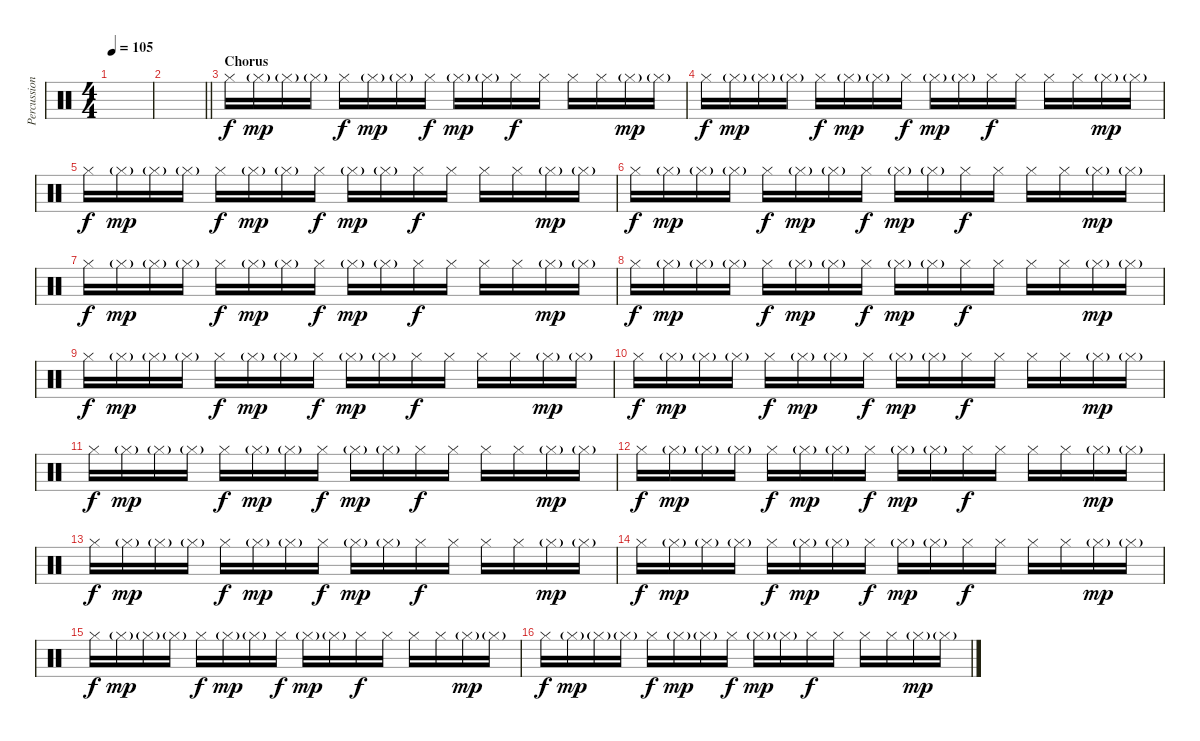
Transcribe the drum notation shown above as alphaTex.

\track ("Percussions and Arrangements" "Percussion") {instrument percussion}
\staff {score}
\articulation defaults
\ts (4 4)
\tempo 105
\clef neutral
\ks c
|
\barLineRight lightlight
|
\section ("" "Chorus")
"Hi-Hat (closed)".16{dy f} "Hi-Hat (closed)"{g}.16{dy mp} "Hi-Hat (closed)"{g}.16 "Hi-Hat (closed)"{g}.16 "Hi-Hat (closed)".16{dy f} "Hi-Hat (closed)"{g}.16{dy mp} "Hi-Hat (closed)"{g}.16 "Hi-Hat (closed)".16{dy f} "Hi-Hat (closed)"{g}.16{dy mp} "Hi-Hat (closed)"{g}.16 "Hi-Hat (closed)".16{dy f} "Hi-Hat (closed)".16 "Hi-Hat (closed)".16 "Hi-Hat (closed)".16 "Hi-Hat (closed)"{g}.16{dy mp} "Hi-Hat (closed)"{g}.16 |
"Hi-Hat (closed)".16{dy f} "Hi-Hat (closed)"{g}.16{dy mp} "Hi-Hat (closed)"{g}.16 "Hi-Hat (closed)"{g}.16 "Hi-Hat (closed)".16{dy f} "Hi-Hat (closed)"{g}.16{dy mp} "Hi-Hat (closed)"{g}.16 "Hi-Hat (closed)".16{dy f} "Hi-Hat (closed)"{g}.16{dy mp} "Hi-Hat (closed)"{g}.16 "Hi-Hat (closed)".16{dy f} "Hi-Hat (closed)".16 "Hi-Hat (closed)".16 "Hi-Hat (closed)".16 "Hi-Hat (closed)"{g}.16{dy mp} "Hi-Hat (closed)"{g}.16 |
"Hi-Hat (closed)".16{dy f} "Hi-Hat (closed)"{g}.16{dy mp} "Hi-Hat (closed)"{g}.16 "Hi-Hat (closed)"{g}.16 "Hi-Hat (closed)".16{dy f} "Hi-Hat (closed)"{g}.16{dy mp} "Hi-Hat (closed)"{g}.16 "Hi-Hat (closed)".16{dy f} "Hi-Hat (closed)"{g}.16{dy mp} "Hi-Hat (closed)"{g}.16 "Hi-Hat (closed)".16{dy f} "Hi-Hat (closed)".16 "Hi-Hat (closed)".16 "Hi-Hat (closed)".16 "Hi-Hat (closed)"{g}.16{dy mp} "Hi-Hat (closed)"{g}.16 |
"Hi-Hat (closed)".16{dy f} "Hi-Hat (closed)"{g}.16{dy mp} "Hi-Hat (closed)"{g}.16 "Hi-Hat (closed)"{g}.16 "Hi-Hat (closed)".16{dy f} "Hi-Hat (closed)"{g}.16{dy mp} "Hi-Hat (closed)"{g}.16 "Hi-Hat (closed)".16{dy f} "Hi-Hat (closed)"{g}.16{dy mp} "Hi-Hat (closed)"{g}.16 "Hi-Hat (closed)".16{dy f} "Hi-Hat (closed)".16 "Hi-Hat (closed)".16 "Hi-Hat (closed)".16 "Hi-Hat (closed)"{g}.16{dy mp} "Hi-Hat (closed)"{g}.16 |
"Hi-Hat (closed)".16{dy f} "Hi-Hat (closed)"{g}.16{dy mp} "Hi-Hat (closed)"{g}.16 "Hi-Hat (closed)"{g}.16 "Hi-Hat (closed)".16{dy f} "Hi-Hat (closed)"{g}.16{dy mp} "Hi-Hat (closed)"{g}.16 "Hi-Hat (closed)".16{dy f} "Hi-Hat (closed)"{g}.16{dy mp} "Hi-Hat (closed)"{g}.16 "Hi-Hat (closed)".16{dy f} "Hi-Hat (closed)".16 "Hi-Hat (closed)".16 "Hi-Hat (closed)".16 "Hi-Hat (closed)"{g}.16{dy mp} "Hi-Hat (closed)"{g}.16 |
"Hi-Hat (closed)".16{dy f} "Hi-Hat (closed)"{g}.16{dy mp} "Hi-Hat (closed)"{g}.16 "Hi-Hat (closed)"{g}.16 "Hi-Hat (closed)".16{dy f} "Hi-Hat (closed)"{g}.16{dy mp} "Hi-Hat (closed)"{g}.16 "Hi-Hat (closed)".16{dy f} "Hi-Hat (closed)"{g}.16{dy mp} "Hi-Hat (closed)"{g}.16 "Hi-Hat (closed)".16{dy f} "Hi-Hat (closed)".16 "Hi-Hat (closed)".16 "Hi-Hat (closed)".16 "Hi-Hat (closed)"{g}.16{dy mp} "Hi-Hat (closed)"{g}.16 |
"Hi-Hat (closed)".16{dy f} "Hi-Hat (closed)"{g}.16{dy mp} "Hi-Hat (closed)"{g}.16 "Hi-Hat (closed)"{g}.16 "Hi-Hat (closed)".16{dy f} "Hi-Hat (closed)"{g}.16{dy mp} "Hi-Hat (closed)"{g}.16 "Hi-Hat (closed)".16{dy f} "Hi-Hat (closed)"{g}.16{dy mp} "Hi-Hat (closed)"{g}.16 "Hi-Hat (closed)".16{dy f} "Hi-Hat (closed)".16 "Hi-Hat (closed)".16 "Hi-Hat (closed)".16 "Hi-Hat (closed)"{g}.16{dy mp} "Hi-Hat (closed)"{g}.16 |
"Hi-Hat (closed)".16{dy f} "Hi-Hat (closed)"{g}.16{dy mp} "Hi-Hat (closed)"{g}.16 "Hi-Hat (closed)"{g}.16 "Hi-Hat (closed)".16{dy f} "Hi-Hat (closed)"{g}.16{dy mp} "Hi-Hat (closed)"{g}.16 "Hi-Hat (closed)".16{dy f} "Hi-Hat (closed)"{g}.16{dy mp} "Hi-Hat (closed)"{g}.16 "Hi-Hat (closed)".16{dy f} "Hi-Hat (closed)".16 "Hi-Hat (closed)".16 "Hi-Hat (closed)".16 "Hi-Hat (closed)"{g}.16{dy mp} "Hi-Hat (closed)"{g}.16 |
"Hi-Hat (closed)".16{dy f} "Hi-Hat (closed)"{g}.16{dy mp} "Hi-Hat (closed)"{g}.16 "Hi-Hat (closed)"{g}.16 "Hi-Hat (closed)".16{dy f} "Hi-Hat (closed)"{g}.16{dy mp} "Hi-Hat (closed)"{g}.16 "Hi-Hat (closed)".16{dy f} "Hi-Hat (closed)"{g}.16{dy mp} "Hi-Hat (closed)"{g}.16 "Hi-Hat (closed)".16{dy f} "Hi-Hat (closed)".16 "Hi-Hat (closed)".16 "Hi-Hat (closed)".16 "Hi-Hat (closed)"{g}.16{dy mp} "Hi-Hat (closed)"{g}.16 |
"Hi-Hat (closed)".16{dy f} "Hi-Hat (closed)"{g}.16{dy mp} "Hi-Hat (closed)"{g}.16 "Hi-Hat (closed)"{g}.16 "Hi-Hat (closed)".16{dy f} "Hi-Hat (closed)"{g}.16{dy mp} "Hi-Hat (closed)"{g}.16 "Hi-Hat (closed)".16{dy f} "Hi-Hat (closed)"{g}.16{dy mp} "Hi-Hat (closed)"{g}.16 "Hi-Hat (closed)".16{dy f} "Hi-Hat (closed)".16 "Hi-Hat (closed)".16 "Hi-Hat (closed)".16 "Hi-Hat (closed)"{g}.16{dy mp} "Hi-Hat (closed)"{g}.16 |
"Hi-Hat (closed)".16{dy f} "Hi-Hat (closed)"{g}.16{dy mp} "Hi-Hat (closed)"{g}.16 "Hi-Hat (closed)"{g}.16 "Hi-Hat (closed)".16{dy f} "Hi-Hat (closed)"{g}.16{dy mp} "Hi-Hat (closed)"{g}.16 "Hi-Hat (closed)".16{dy f} "Hi-Hat (closed)"{g}.16{dy mp} "Hi-Hat (closed)"{g}.16 "Hi-Hat (closed)".16{dy f} "Hi-Hat (closed)".16 "Hi-Hat (closed)".16 "Hi-Hat (closed)".16 "Hi-Hat (closed)"{g}.16{dy mp} "Hi-Hat (closed)"{g}.16 |
"Hi-Hat (closed)".16{dy f} "Hi-Hat (closed)"{g}.16{dy mp} "Hi-Hat (closed)"{g}.16 "Hi-Hat (closed)"{g}.16 "Hi-Hat (closed)".16{dy f} "Hi-Hat (closed)"{g}.16{dy mp} "Hi-Hat (closed)"{g}.16 "Hi-Hat (closed)".16{dy f} "Hi-Hat (closed)"{g}.16{dy mp} "Hi-Hat (closed)"{g}.16 "Hi-Hat (closed)".16{dy f} "Hi-Hat (closed)".16 "Hi-Hat (closed)".16 "Hi-Hat (closed)".16 "Hi-Hat (closed)"{g}.16{dy mp} "Hi-Hat (closed)"{g}.16 |
"Hi-Hat (closed)".16{dy f} "Hi-Hat (closed)"{g}.16{dy mp} "Hi-Hat (closed)"{g}.16 "Hi-Hat (closed)"{g}.16 "Hi-Hat (closed)".16{dy f} "Hi-Hat (closed)"{g}.16{dy mp} "Hi-Hat (closed)"{g}.16 "Hi-Hat (closed)".16{dy f} "Hi-Hat (closed)"{g}.16{dy mp} "Hi-Hat (closed)"{g}.16 "Hi-Hat (closed)".16{dy f} "Hi-Hat (closed)".16 "Hi-Hat (closed)".16 "Hi-Hat (closed)".16 "Hi-Hat (closed)"{g}.16{dy mp} "Hi-Hat (closed)"{g}.16 |
"Hi-Hat (closed)".16{dy f} "Hi-Hat (closed)"{g}.16{dy mp} "Hi-Hat (closed)"{g}.16 "Hi-Hat (closed)"{g}.16 "Hi-Hat (closed)".16{dy f} "Hi-Hat (closed)"{g}.16{dy mp} "Hi-Hat (closed)"{g}.16 "Hi-Hat (closed)".16{dy f} "Hi-Hat (closed)"{g}.16{dy mp} "Hi-Hat (closed)"{g}.16 "Hi-Hat (closed)".16{dy f} "Hi-Hat (closed)".16 "Hi-Hat (closed)".16 "Hi-Hat (closed)".16 "Hi-Hat (closed)"{g}.16{dy mp} "Hi-Hat (closed)"{g}.16
